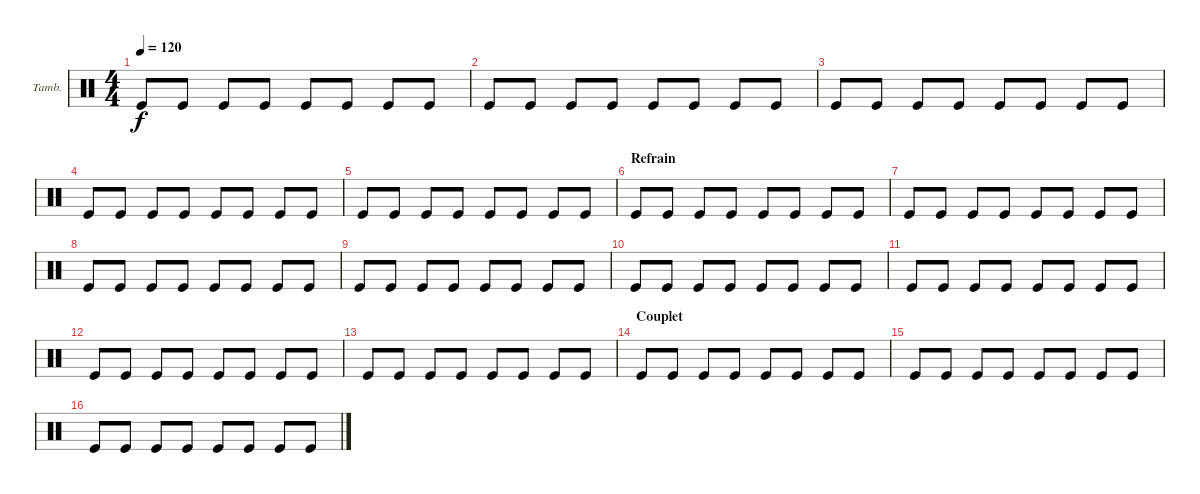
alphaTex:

\defaultSystemsLayout 4
\bracketExtendMode groupsimilarinstruments
\firstSystemTrackNameOrientation horizontal
\otherSystemsTrackNameOrientation horizontal
\track ("Tambourine" "Tamb.") {multiBarRest instrument percussion}
\staff {score}
\articulation defaults
\ts (4 4)
\tempo 120
\clef neutral
\ks c "Kick (hit)".8{dy f} "Kick (hit)".8 "Kick (hit)".8 "Kick (hit)".8 "Kick (hit)".8 "Kick (hit)".8 "Kick (hit)".8 "Kick (hit)".8
|
"Kick (hit)".8 "Kick (hit)".8 "Kick (hit)".8 "Kick (hit)".8 "Kick (hit)".8 "Kick (hit)".8 "Kick (hit)".8 "Kick (hit)".8 |
"Kick (hit)".8 "Kick (hit)".8 "Kick (hit)".8 "Kick (hit)".8 "Kick (hit)".8 "Kick (hit)".8 "Kick (hit)".8 "Kick (hit)".8 |
"Kick (hit)".8 "Kick (hit)".8 "Kick (hit)".8 "Kick (hit)".8 "Kick (hit)".8 "Kick (hit)".8 "Kick (hit)".8 "Kick (hit)".8 |
"Kick (hit)".8 "Kick (hit)".8 "Kick (hit)".8 "Kick (hit)".8 "Kick (hit)".8 "Kick (hit)".8 "Kick (hit)".8 "Kick (hit)".8 |
\section ("" "Refrain")
"Kick (hit)".8 "Kick (hit)".8 "Kick (hit)".8 "Kick (hit)".8 "Kick (hit)".8 "Kick (hit)".8 "Kick (hit)".8 "Kick (hit)".8 |
"Kick (hit)".8 "Kick (hit)".8 "Kick (hit)".8 "Kick (hit)".8 "Kick (hit)".8 "Kick (hit)".8 "Kick (hit)".8 "Kick (hit)".8 |
"Kick (hit)".8 "Kick (hit)".8 "Kick (hit)".8 "Kick (hit)".8 "Kick (hit)".8 "Kick (hit)".8 "Kick (hit)".8 "Kick (hit)".8 |
"Kick (hit)".8 "Kick (hit)".8 "Kick (hit)".8 "Kick (hit)".8 "Kick (hit)".8 "Kick (hit)".8 "Kick (hit)".8 "Kick (hit)".8 |
"Kick (hit)".8 "Kick (hit)".8 "Kick (hit)".8 "Kick (hit)".8 "Kick (hit)".8 "Kick (hit)".8 "Kick (hit)".8 "Kick (hit)".8 |
"Kick (hit)".8 "Kick (hit)".8 "Kick (hit)".8 "Kick (hit)".8 "Kick (hit)".8 "Kick (hit)".8 "Kick (hit)".8 "Kick (hit)".8 |
"Kick (hit)".8 "Kick (hit)".8 "Kick (hit)".8 "Kick (hit)".8 "Kick (hit)".8 "Kick (hit)".8 "Kick (hit)".8 "Kick (hit)".8 |
"Kick (hit)".8 "Kick (hit)".8 "Kick (hit)".8 "Kick (hit)".8 "Kick (hit)".8 "Kick (hit)".8 "Kick (hit)".8 "Kick (hit)".8 |
\section ("" "Couplet")
"Kick (hit)".8 "Kick (hit)".8 "Kick (hit)".8 "Kick (hit)".8 "Kick (hit)".8 "Kick (hit)".8 "Kick (hit)".8 "Kick (hit)".8 |
"Kick (hit)".8 "Kick (hit)".8 "Kick (hit)".8 "Kick (hit)".8 "Kick (hit)".8 "Kick (hit)".8 "Kick (hit)".8 "Kick (hit)".8 |
"Kick (hit)".8 "Kick (hit)".8 "Kick (hit)".8 "Kick (hit)".8 "Kick (hit)".8 "Kick (hit)".8 "Kick (hit)".8 "Kick (hit)".8
